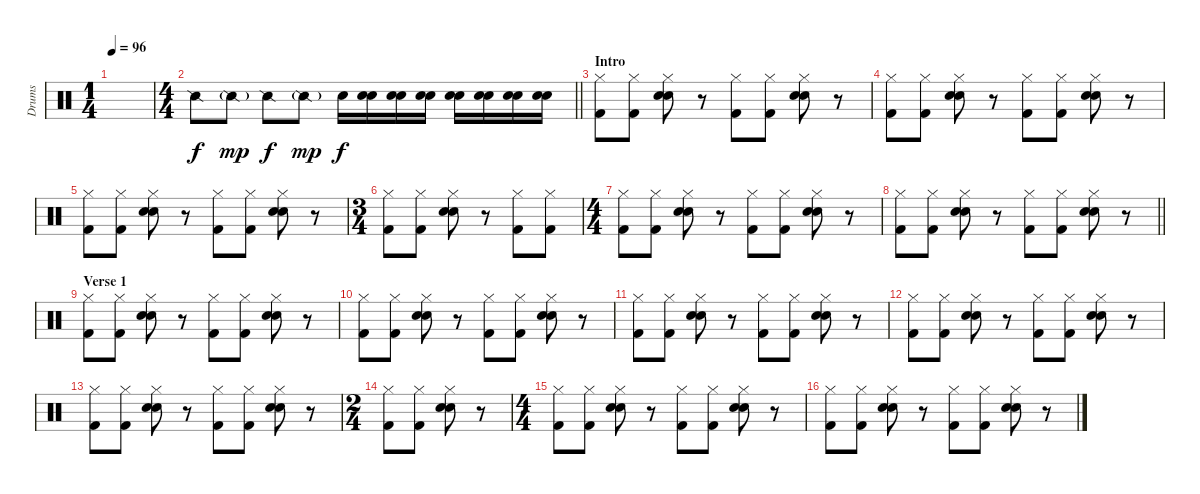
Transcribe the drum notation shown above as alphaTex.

\track ("Drums" "Drums") {instrument percussion}
\staff {score}
\articulation defaults
\ts (1 4)
\tempo 96
\clef neutral
\ks c
|
\ts (4 4)
\barLineRight lightlight "Snare (side stick) 2".8 "Snare (side stick) 2"{g}.8{dy mp} "Snare (side stick) 2".8{dy f} "Snare (side stick) 2"{g}.8{dy mp} "Snare (hit) 2".16{dy f}
("Snare (hit)" "Snare (hit) 2").16 ("Snare (hit)" "Snare (hit) 2").16 ("Snare (hit)" "Snare (hit) 2").16 ("Snare (hit)" "Snare (hit) 2").16 ("Snare (hit)" "Snare (hit) 2").16 ("Snare (hit)" "Snare (hit) 2").16 ("Snare (hit)" "Snare (hit) 2").16 |
\section ("" "Intro")
("Hi-Hat (closed)" "Kick (hit) 2").8 ("Hi-Hat (closed)" "Kick (hit) 2").8 ("Hi-Hat (closed)" "Hand Clap (hit)" "Snare (hit) 2").8 r.8 ("Hi-Hat (closed)" "Kick (hit) 2").8 ("Hi-Hat (closed)" "Kick (hit) 2").8 ("Hi-Hat (closed)" "Hand Clap (hit)" "Snare (hit) 2").8 r.8 |
("Hi-Hat (closed)" "Kick (hit) 2").8 ("Hi-Hat (closed)" "Kick (hit) 2").8 ("Hi-Hat (closed)" "Hand Clap (hit)" "Snare (hit) 2").8 r.8 ("Hi-Hat (closed)" "Kick (hit) 2").8 ("Hi-Hat (closed)" "Kick (hit) 2").8 ("Hi-Hat (closed)" "Hand Clap (hit)" "Snare (hit) 2").8 r.8 |
("Hi-Hat (closed)" "Kick (hit) 2").8 ("Hi-Hat (closed)" "Kick (hit) 2").8 ("Hi-Hat (closed)" "Hand Clap (hit)" "Snare (hit) 2").8 r.8 ("Hi-Hat (closed)" "Kick (hit) 2").8 ("Hi-Hat (closed)" "Kick (hit) 2").8 ("Hi-Hat (closed)" "Hand Clap (hit)" "Snare (hit) 2").8 r.8 |
\ts (3 4)
("Hi-Hat (closed)" "Kick (hit) 2").8 ("Hi-Hat (closed)" "Kick (hit) 2").8 ("Hi-Hat (closed)" "Hand Clap (hit)" "Snare (hit) 2").8 r.8 ("Hi-Hat (closed)" "Kick (hit) 2").8 ("Hi-Hat (closed)" "Kick (hit) 2").8 |
\ts (4 4)
("Hi-Hat (closed)" "Kick (hit) 2").8 ("Hi-Hat (closed)" "Kick (hit) 2").8 ("Hi-Hat (closed)" "Hand Clap (hit)" "Snare (hit) 2").8 r.8 ("Hi-Hat (closed)" "Kick (hit) 2").8 ("Hi-Hat (closed)" "Kick (hit) 2").8 ("Hi-Hat (closed)" "Hand Clap (hit)" "Snare (hit) 2").8 r.8 |
\barLineRight lightlight
("Hi-Hat (closed)" "Kick (hit) 2").8 ("Hi-Hat (closed)" "Kick (hit) 2").8 ("Hi-Hat (closed)" "Hand Clap (hit)" "Snare (hit) 2").8 r.8 ("Hi-Hat (closed)" "Kick (hit) 2").8 ("Hi-Hat (closed)" "Kick (hit) 2").8 ("Hi-Hat (closed)" "Hand Clap (hit)" "Snare (hit) 2").8 r.8 |
\section ("" "Verse 1")
("Hi-Hat (closed)" "Kick (hit) 2").8 ("Hi-Hat (closed)" "Kick (hit) 2").8 ("Hi-Hat (closed)" "Hand Clap (hit)" "Snare (hit) 2").8 r.8 ("Hi-Hat (closed)" "Kick (hit) 2").8 ("Hi-Hat (closed)" "Kick (hit) 2").8 ("Hi-Hat (closed)" "Hand Clap (hit)" "Snare (hit) 2").8 r.8 |
("Hi-Hat (closed)" "Kick (hit) 2").8 ("Hi-Hat (closed)" "Kick (hit) 2").8 ("Hi-Hat (closed)" "Hand Clap (hit)" "Snare (hit) 2").8 r.8 ("Hi-Hat (closed)" "Kick (hit) 2").8 ("Hi-Hat (closed)" "Kick (hit) 2").8 ("Hi-Hat (closed)" "Hand Clap (hit)" "Snare (hit) 2").8 r.8 |
("Hi-Hat (closed)" "Kick (hit) 2").8 ("Hi-Hat (closed)" "Kick (hit) 2").8 ("Hi-Hat (closed)" "Hand Clap (hit)" "Snare (hit) 2").8 r.8 ("Hi-Hat (closed)" "Kick (hit) 2").8 ("Hi-Hat (closed)" "Kick (hit) 2").8 ("Hi-Hat (closed)" "Hand Clap (hit)" "Snare (hit) 2").8 r.8 |
("Hi-Hat (closed)" "Kick (hit) 2").8 ("Hi-Hat (closed)" "Kick (hit) 2").8 ("Hi-Hat (closed)" "Hand Clap (hit)" "Snare (hit) 2").8 r.8 ("Hi-Hat (closed)" "Kick (hit) 2").8 ("Hi-Hat (closed)" "Kick (hit) 2").8 ("Hi-Hat (closed)" "Hand Clap (hit)" "Snare (hit) 2").8 r.8 |
("Hi-Hat (closed)" "Kick (hit) 2").8 ("Hi-Hat (closed)" "Kick (hit) 2").8 ("Hi-Hat (closed)" "Hand Clap (hit)" "Snare (hit) 2").8 r.8 ("Hi-Hat (closed)" "Kick (hit) 2").8 ("Hi-Hat (closed)" "Kick (hit) 2").8 ("Hi-Hat (closed)" "Hand Clap (hit)" "Snare (hit) 2").8 r.8 |
\ts (2 4)
("Hi-Hat (closed)" "Kick (hit) 2").8 ("Hi-Hat (closed)" "Kick (hit) 2").8 ("Hi-Hat (closed)" "Hand Clap (hit)" "Snare (hit) 2").8 r.8 |
\ts (4 4)
("Hi-Hat (closed)" "Kick (hit) 2").8 ("Hi-Hat (closed)" "Kick (hit) 2").8 ("Hi-Hat (closed)" "Hand Clap (hit)" "Snare (hit) 2").8 r.8 ("Hi-Hat (closed)" "Kick (hit) 2").8 ("Hi-Hat (closed)" "Kick (hit) 2").8 ("Hi-Hat (closed)" "Hand Clap (hit)" "Snare (hit) 2").8 r.8 |
("Hi-Hat (closed)" "Kick (hit) 2").8 ("Hi-Hat (closed)" "Kick (hit) 2").8 ("Hi-Hat (closed)" "Hand Clap (hit)" "Snare (hit) 2").8 r.8 ("Hi-Hat (closed)" "Kick (hit) 2").8 ("Hi-Hat (closed)" "Kick (hit) 2").8 ("Hi-Hat (closed)" "Hand Clap (hit)" "Snare (hit) 2").8 r.8
